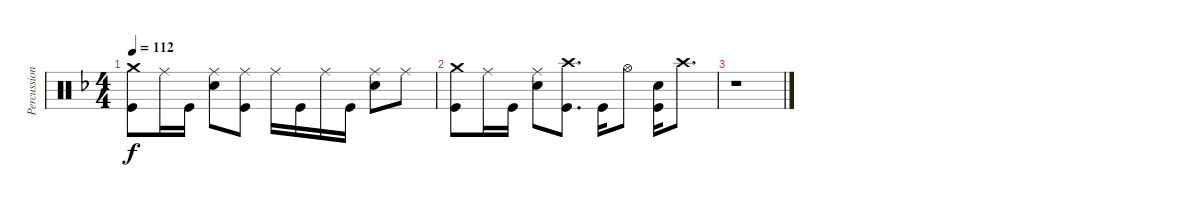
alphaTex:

\track ("Percussion" "Percussion") {instrument percussion}
\staff {score}
\articulation defaults
\ts (4 4)
\tempo 112
\clef neutral
\ks f
("Crash medium (hit)" "Kick (hit)").8{dy f} "Ride (middle)".16 "Kick (hit)".16 ("Ride (middle)" "Electric Snare (hit)").8 ("Ride (middle)" "Kick (hit)").8 "Ride (middle)".16 "Kick (hit)".16 "Ride (middle)".16 "Kick (hit)".16 ("Ride (middle)" "Electric Snare (hit)").8 "Ride (middle)".8 |
("Crash medium (hit)" "Kick (hit)").8 "Ride (middle)".16 "Kick (hit)".16 ("Ride (middle)" "Electric Snare (hit)").8 ("Crash high (hit)" "Kick (hit)").8{d} "Kick (hit)".16 "Hi-Hat (open)".8 ("Electric Snare (hit)" "Kick (hit)").16 "Crash high (hit)".8{d} |
r.1
